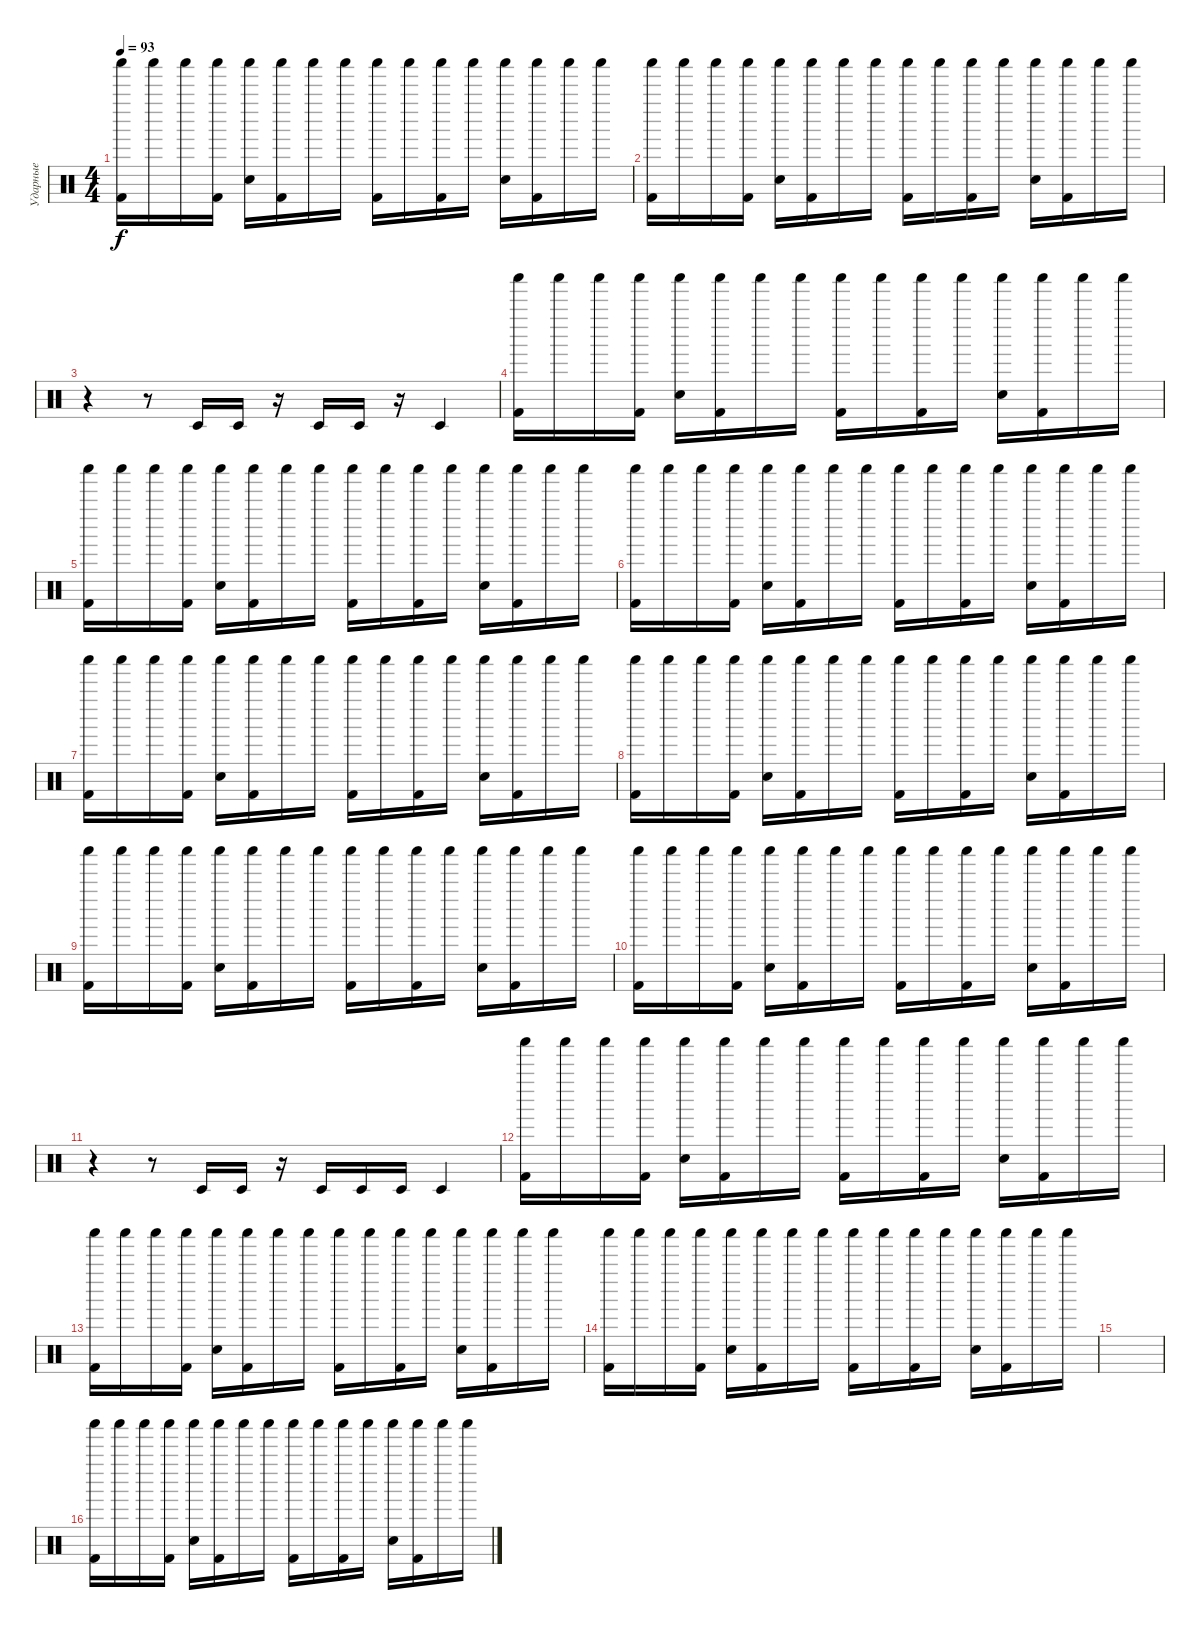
\track ("Ударные" "Ударные") {instrument percussion}
\staff {score}
\articulation defaults
\ts (4 4)
\tempo 93
\clef neutral
\ks c
("Kick (hit) 2" "Shaker (hit)").16{dy f} "Shaker (hit)".16 "Shaker (hit)".16 ("Kick (hit) 2" "Shaker (hit)").16 ("Snare (hit) 2" "Shaker (hit)").16 ("Kick (hit) 2" "Shaker (hit)").16 "Shaker (hit)".16 "Shaker (hit)".16 ("Kick (hit) 2" "Shaker (hit)").16 "Shaker (hit)".16 ("Kick (hit) 2" "Shaker (hit)").16 "Shaker (hit)".16 ("Snare (hit) 2" "Shaker (hit)").16 ("Kick (hit) 2" "Shaker (hit)").16 "Shaker (hit)".16 "Shaker (hit)".16 |
("Kick (hit) 2" "Shaker (hit)").16 "Shaker (hit)".16 "Shaker (hit)".16 ("Kick (hit) 2" "Shaker (hit)").16 ("Snare (hit) 2" "Shaker (hit)").16 ("Kick (hit) 2" "Shaker (hit)").16 "Shaker (hit)".16 "Shaker (hit)".16 ("Kick (hit) 2" "Shaker (hit)").16 "Shaker (hit)".16 ("Kick (hit) 2" "Shaker (hit)").16 "Shaker (hit)".16 ("Snare (hit) 2" "Shaker (hit)").16 ("Kick (hit) 2" "Shaker (hit)").16 "Shaker (hit)".16 "Shaker (hit)".16 |
r.4 r.8 "Timbale low (hit)".16 "Timbale low (hit)".16 r.16 "Timbale low (hit)".16 "Timbale low (hit)".16 r.16 "Timbale low (hit)".4 |
("Kick (hit) 2" "Shaker (hit)").16 "Shaker (hit)".16 "Shaker (hit)".16 ("Kick (hit) 2" "Shaker (hit)").16 ("Snare (hit) 2" "Shaker (hit)").16 ("Kick (hit) 2" "Shaker (hit)").16 "Shaker (hit)".16 "Shaker (hit)".16 ("Kick (hit) 2" "Shaker (hit)").16 "Shaker (hit)".16 ("Kick (hit) 2" "Shaker (hit)").16 "Shaker (hit)".16 ("Snare (hit) 2" "Shaker (hit)").16 ("Kick (hit) 2" "Shaker (hit)").16 "Shaker (hit)".16 "Shaker (hit)".16 |
("Kick (hit) 2" "Shaker (hit)").16 "Shaker (hit)".16 "Shaker (hit)".16 ("Kick (hit) 2" "Shaker (hit)").16 ("Snare (hit) 2" "Shaker (hit)").16 ("Kick (hit) 2" "Shaker (hit)").16 "Shaker (hit)".16 "Shaker (hit)".16 ("Kick (hit) 2" "Shaker (hit)").16 "Shaker (hit)".16 ("Kick (hit) 2" "Shaker (hit)").16 "Shaker (hit)".16 ("Snare (hit) 2" "Shaker (hit)").16 ("Kick (hit) 2" "Shaker (hit)").16 "Shaker (hit)".16 "Shaker (hit)".16 |
("Kick (hit) 2" "Shaker (hit)").16 "Shaker (hit)".16 "Shaker (hit)".16 ("Kick (hit) 2" "Shaker (hit)").16 ("Snare (hit) 2" "Shaker (hit)").16 ("Kick (hit) 2" "Shaker (hit)").16 "Shaker (hit)".16 "Shaker (hit)".16 ("Kick (hit) 2" "Shaker (hit)").16 "Shaker (hit)".16 ("Kick (hit) 2" "Shaker (hit)").16 "Shaker (hit)".16 ("Snare (hit) 2" "Shaker (hit)").16 ("Kick (hit) 2" "Shaker (hit)").16 "Shaker (hit)".16 "Shaker (hit)".16 |
("Kick (hit) 2" "Shaker (hit)").16 "Shaker (hit)".16 "Shaker (hit)".16 ("Kick (hit) 2" "Shaker (hit)").16 ("Snare (hit) 2" "Shaker (hit)").16 ("Kick (hit) 2" "Shaker (hit)").16 "Shaker (hit)".16 "Shaker (hit)".16 ("Kick (hit) 2" "Shaker (hit)").16 "Shaker (hit)".16 ("Kick (hit) 2" "Shaker (hit)").16 "Shaker (hit)".16 ("Snare (hit) 2" "Shaker (hit)").16 ("Kick (hit) 2" "Shaker (hit)").16 "Shaker (hit)".16 "Shaker (hit)".16 |
("Kick (hit) 2" "Shaker (hit)").16 "Shaker (hit)".16 "Shaker (hit)".16 ("Kick (hit) 2" "Shaker (hit)").16 ("Snare (hit) 2" "Shaker (hit)").16 ("Kick (hit) 2" "Shaker (hit)").16 "Shaker (hit)".16 "Shaker (hit)".16 ("Kick (hit) 2" "Shaker (hit)").16 "Shaker (hit)".16 ("Kick (hit) 2" "Shaker (hit)").16 "Shaker (hit)".16 ("Snare (hit) 2" "Shaker (hit)").16 ("Kick (hit) 2" "Shaker (hit)").16 "Shaker (hit)".16 "Shaker (hit)".16 |
("Kick (hit) 2" "Shaker (hit)").16 "Shaker (hit)".16 "Shaker (hit)".16 ("Kick (hit) 2" "Shaker (hit)").16 ("Snare (hit) 2" "Shaker (hit)").16 ("Kick (hit) 2" "Shaker (hit)").16 "Shaker (hit)".16 "Shaker (hit)".16 ("Kick (hit) 2" "Shaker (hit)").16 "Shaker (hit)".16 ("Kick (hit) 2" "Shaker (hit)").16 "Shaker (hit)".16 ("Snare (hit) 2" "Shaker (hit)").16 ("Kick (hit) 2" "Shaker (hit)").16 "Shaker (hit)".16 "Shaker (hit)".16 |
("Kick (hit) 2" "Shaker (hit)").16 "Shaker (hit)".16 "Shaker (hit)".16 ("Kick (hit) 2" "Shaker (hit)").16 ("Snare (hit) 2" "Shaker (hit)").16 ("Kick (hit) 2" "Shaker (hit)").16 "Shaker (hit)".16 "Shaker (hit)".16 ("Kick (hit) 2" "Shaker (hit)").16 "Shaker (hit)".16 ("Kick (hit) 2" "Shaker (hit)").16 "Shaker (hit)".16 ("Snare (hit) 2" "Shaker (hit)").16 ("Kick (hit) 2" "Shaker (hit)").16 "Shaker (hit)".16 "Shaker (hit)".16 |
r.4 r.8 "Timbale low (hit)".16 "Timbale low (hit)".16 r.16 "Timbale low (hit)".16 "Timbale low (hit)".16 "Timbale low (hit)".16 "Timbale low (hit)".4 |
("Kick (hit) 2" "Shaker (hit)").16 "Shaker (hit)".16 "Shaker (hit)".16 ("Kick (hit) 2" "Shaker (hit)").16 ("Snare (hit) 2" "Shaker (hit)").16 ("Kick (hit) 2" "Shaker (hit)").16 "Shaker (hit)".16 "Shaker (hit)".16 ("Kick (hit) 2" "Shaker (hit)").16 "Shaker (hit)".16 ("Kick (hit) 2" "Shaker (hit)").16 "Shaker (hit)".16 ("Snare (hit) 2" "Shaker (hit)").16 ("Kick (hit) 2" "Shaker (hit)").16 "Shaker (hit)".16 "Shaker (hit)".16 |
("Kick (hit) 2" "Shaker (hit)").16 "Shaker (hit)".16 "Shaker (hit)".16 ("Kick (hit) 2" "Shaker (hit)").16 ("Snare (hit) 2" "Shaker (hit)").16 ("Kick (hit) 2" "Shaker (hit)").16 "Shaker (hit)".16 "Shaker (hit)".16 ("Kick (hit) 2" "Shaker (hit)").16 "Shaker (hit)".16 ("Kick (hit) 2" "Shaker (hit)").16 "Shaker (hit)".16 ("Snare (hit) 2" "Shaker (hit)").16 ("Kick (hit) 2" "Shaker (hit)").16 "Shaker (hit)".16 "Shaker (hit)".16 |
("Kick (hit) 2" "Shaker (hit)").16 "Shaker (hit)".16 "Shaker (hit)".16 ("Kick (hit) 2" "Shaker (hit)").16 ("Snare (hit) 2" "Shaker (hit)").16 ("Kick (hit) 2" "Shaker (hit)").16 "Shaker (hit)".16 "Shaker (hit)".16 ("Kick (hit) 2" "Shaker (hit)").16 "Shaker (hit)".16 ("Kick (hit) 2" "Shaker (hit)").16 "Shaker (hit)".16 ("Snare (hit) 2" "Shaker (hit)").16 ("Kick (hit) 2" "Shaker (hit)").16 "Shaker (hit)".16 "Shaker (hit)".16 |
|
("Kick (hit) 2" "Shaker (hit)").16 "Shaker (hit)".16 "Shaker (hit)".16 ("Kick (hit) 2" "Shaker (hit)").16 ("Snare (hit) 2" "Shaker (hit)").16 ("Kick (hit) 2" "Shaker (hit)").16 "Shaker (hit)".16 "Shaker (hit)".16 ("Kick (hit) 2" "Shaker (hit)").16 "Shaker (hit)".16 ("Kick (hit) 2" "Shaker (hit)").16 "Shaker (hit)".16 ("Snare (hit) 2" "Shaker (hit)").16 ("Kick (hit) 2" "Shaker (hit)").16 "Shaker (hit)".16 "Shaker (hit)".16
